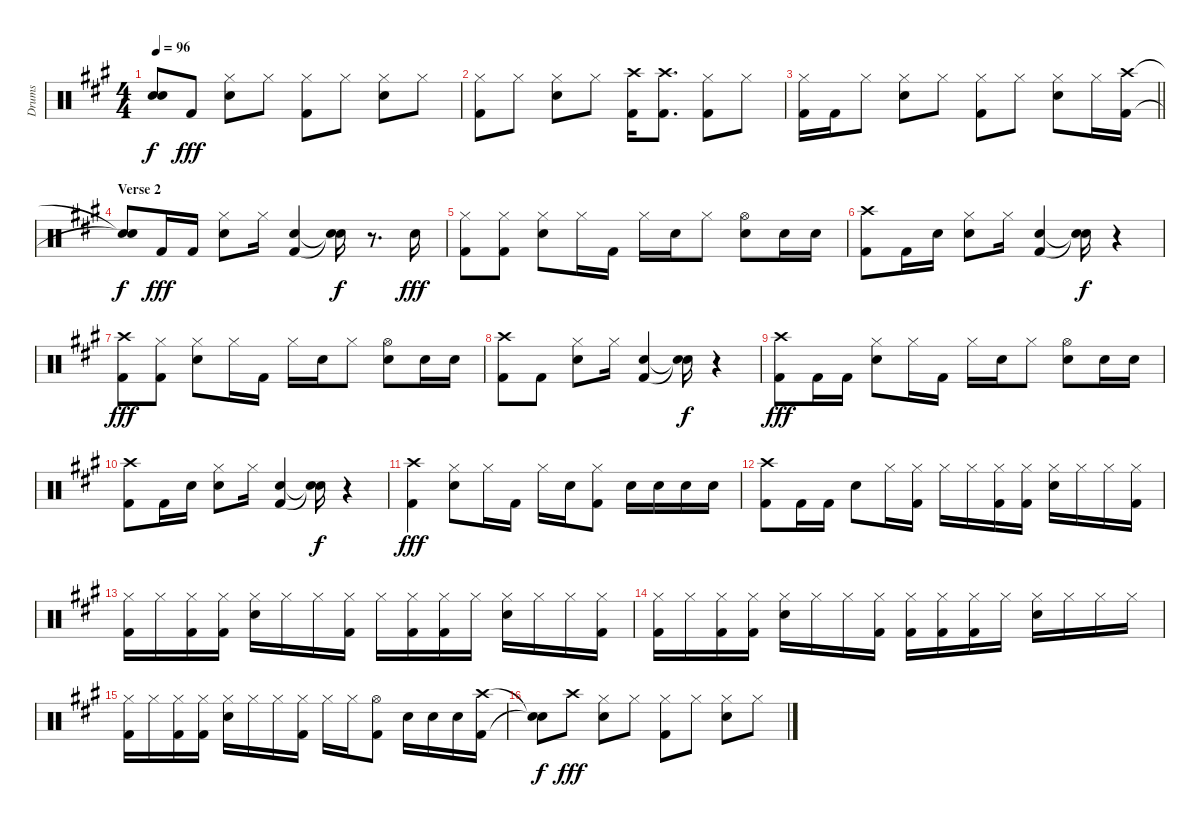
\track ("Drums" "Drums") {instrument percussion}
\staff {score}
\articulation defaults
\ts (4 4)
\tempo 96
\clef neutral
\ks a
("Snare (hit)"{t} "Snare (hit)"{t}).8{dy f} "Kick (hit) 2".8{dy fff} ("Electric Snare (hit)" "Hi-Hat (closed)").8 "Hi-Hat (closed)".8 ("Kick (hit) 2" "Hi-Hat (closed)").8 "Hi-Hat (closed)".8 ("Electric Snare (hit)" "Hi-Hat (closed)").8 "Hi-Hat (closed)".8 |
("Kick (hit) 2" "Hi-Hat (closed)").8 "Hi-Hat (closed)".8 ("Electric Snare (hit)" "Hi-Hat (closed)").8 "Hi-Hat (closed)".8 ("Kick (hit) 2" "Crash high (hit)").16 ("Kick (hit) 2" "Crash high (hit)").8{d} ("Kick (hit) 2" "Hi-Hat (closed)").8 "Hi-Hat (closed)".8 |
\barLineRight lightlight
("Kick (hit) 2" "Hi-Hat (closed)").16 "Kick (hit) 2".16 "Hi-Hat (closed)".8 ("Electric Snare (hit)" "Hi-Hat (closed)").8 "Hi-Hat (closed)".8 ("Kick (hit) 2" "Hi-Hat (closed)").8 "Hi-Hat (closed)".8 ("Electric Snare (hit)" "Hi-Hat (closed)").8 "Hi-Hat (closed)".16 ("Kick (hit) 2" "Crash high (hit)").16 |
\section ("" "Verse 2")
("Snare (hit)"{t} "Snare (hit)"{t}).8{dy f} "Kick (hit) 2".16{dy fff} "Kick (hit) 2".16 ("Electric Snare (hit)" "Hi-Hat (closed)").8 "Hi-Hat (closed)".16 ("Kick (hit) 2" "Electric Snare (hit)").4 ("Snare (hit)"{t} "Snare (hit)"{t}).16{dy f} r.8{d} "Electric Snare (hit)".16{dy fff} |
("Kick (hit) 2" "Hi-Hat (closed)").8 ("Kick (hit) 2" "Hi-Hat (closed)").8 ("Electric Snare (hit)" "Hi-Hat (closed)").8 "Hi-Hat (closed)".16 "Kick (hit) 2".16 "Hi-Hat (closed)".16 "Electric Snare (hit)".16 "Hi-Hat (closed)".8 ("Hi-Hat (open)" "Electric Snare (hit)").8 "Electric Snare (hit)".16 "Electric Snare (hit)".16 |
("Crash high (hit)" "Kick (hit) 2").8 "Kick (hit) 2".16 "Electric Snare (hit)".16 ("Hi-Hat (closed)" "Electric Snare (hit)").8 "Hi-Hat (closed)".16 ("Kick (hit) 2" "Electric Snare (hit)").4 ("Snare (hit)"{t} "Snare (hit)"{t}).16{dy f} r.4 |
("Kick (hit) 2" "Crash high (hit)").8{dy fff} ("Kick (hit) 2" "Hi-Hat (closed)").8 ("Electric Snare (hit)" "Hi-Hat (closed)").8 "Hi-Hat (closed)".16 "Kick (hit) 2".16 "Hi-Hat (closed)".16 "Electric Snare (hit)".16 "Hi-Hat (closed)".8 ("Electric Snare (hit)" "Hi-Hat (open)").8 "Electric Snare (hit)".16 "Electric Snare (hit)".16 |
("Kick (hit) 2" "Crash high (hit)").8 "Kick (hit) 2".8 ("Electric Snare (hit)" "Hi-Hat (closed)").8 "Hi-Hat (closed)".16 ("Kick (hit) 2" "Electric Snare (hit)").4 ("Snare (hit)"{t} "Snare (hit)"{t}).16{dy f} r.4 |
("Crash high (hit)" "Kick (hit) 2").8{dy fff} "Kick (hit) 2".16 "Kick (hit) 2".16 ("Hi-Hat (closed)" "Electric Snare (hit)").8 "Hi-Hat (closed)".16 "Kick (hit) 2".16 "Hi-Hat (closed)".16 "Electric Snare (hit)".16 "Hi-Hat (closed)".8 ("Electric Snare (hit)" "Hi-Hat (open)").8 "Electric Snare (hit)".16 "Electric Snare (hit)".16 |
("Kick (hit) 2" "Crash high (hit)").8 "Kick (hit) 2".16 "Electric Snare (hit)".16 ("Electric Snare (hit)" "Hi-Hat (closed)").8 "Hi-Hat (closed)".16 ("Electric Snare (hit)" "Kick (hit) 2").4 ("Snare (hit)"{t} "Snare (hit)"{t}).16{dy f} r.4 |
("Crash high (hit)" "Kick (hit) 2").4{dy fff} ("Hi-Hat (closed)" "Electric Snare (hit)").8 "Hi-Hat (closed)".16 "Kick (hit) 2".16 "Hi-Hat (closed)".16 "Electric Snare (hit)".16 ("Kick (hit) 2" "Hi-Hat (closed)").8 "Electric Snare (hit)".16 "Electric Snare (hit)".16 "Electric Snare (hit)".16 "Electric Snare (hit)".16 |
("Kick (hit) 2" "Crash high (hit)").8 "Kick (hit) 2".16 "Kick (hit) 2".16 "Electric Snare (hit)".8 "Hi-Hat (closed)".16 ("Kick (hit) 2" "Hi-Hat (closed)").16 "Hi-Hat (closed)".16 "Hi-Hat (closed)".16 ("Kick (hit) 2" "Hi-Hat (closed)").16 ("Kick (hit) 2" "Hi-Hat (closed)").16 ("Hi-Hat (closed)" "Electric Snare (hit)").16 "Hi-Hat (closed)".16 "Hi-Hat (closed)".16 ("Hi-Hat (closed)" "Kick (hit) 2").16 |
("Kick (hit) 2" "Hi-Hat (closed)").16 "Hi-Hat (closed)".16 ("Kick (hit) 2" "Hi-Hat (closed)").16 ("Kick (hit) 2" "Hi-Hat (closed)").16 ("Electric Snare (hit)" "Hi-Hat (closed)").16 "Hi-Hat (closed)".16 "Hi-Hat (closed)".16 ("Kick (hit) 2" "Hi-Hat (closed)").16 "Hi-Hat (closed)".16 ("Kick (hit) 2" "Hi-Hat (closed)").16 ("Kick (hit) 2" "Hi-Hat (closed)").16 "Hi-Hat (closed)".16 ("Electric Snare (hit)" "Hi-Hat (closed)").16 "Hi-Hat (closed)".16 "Hi-Hat (closed)".16 ("Kick (hit) 2" "Hi-Hat (closed)").16 |
("Kick (hit) 2" "Hi-Hat (closed)").16 "Hi-Hat (closed)".16 ("Kick (hit) 2" "Hi-Hat (closed)").16 ("Kick (hit) 2" "Hi-Hat (closed)").16 ("Electric Snare (hit)" "Hi-Hat (closed)").16 "Hi-Hat (closed)".16 "Hi-Hat (closed)".16 ("Kick (hit) 2" "Hi-Hat (closed)").16 ("Kick (hit) 2" "Hi-Hat (closed)").16 ("Kick (hit) 2" "Hi-Hat (closed)").16 ("Kick (hit) 2" "Hi-Hat (closed)").16 "Hi-Hat (closed)".16 ("Electric Snare (hit)" "Hi-Hat (closed)").16 "Hi-Hat (closed)".16 "Hi-Hat (closed)".16 "Hi-Hat (closed)".16 |
("Kick (hit) 2" "Hi-Hat (closed)").16 "Hi-Hat (closed)".16 ("Kick (hit) 2" "Hi-Hat (closed)").16 ("Kick (hit) 2" "Hi-Hat (closed)").16 ("Electric Snare (hit)" "Hi-Hat (closed)").16 "Hi-Hat (closed)".16 "Hi-Hat (closed)".16 ("Kick (hit) 2" "Hi-Hat (closed)").16 "Hi-Hat (closed)".16 "Hi-Hat (closed)".16 ("Kick (hit) 2" "Hi-Hat (open)").8 "Electric Snare (hit)".16 "Electric Snare (hit)".16 "Electric Snare (hit)".16 ("Kick (hit) 2" "Crash high (hit)").16 |
("Snare (hit)"{t} "Snare (hit)"{t}).8{dy f} "Crash high (hit)".8{dy fff} ("Electric Snare (hit)" "Hi-Hat (closed)").8 "Hi-Hat (closed)".8 ("Kick (hit) 2" "Hi-Hat (closed)").8 "Hi-Hat (closed)".8 ("Electric Snare (hit)" "Hi-Hat (closed)").8 "Hi-Hat (closed)".8
